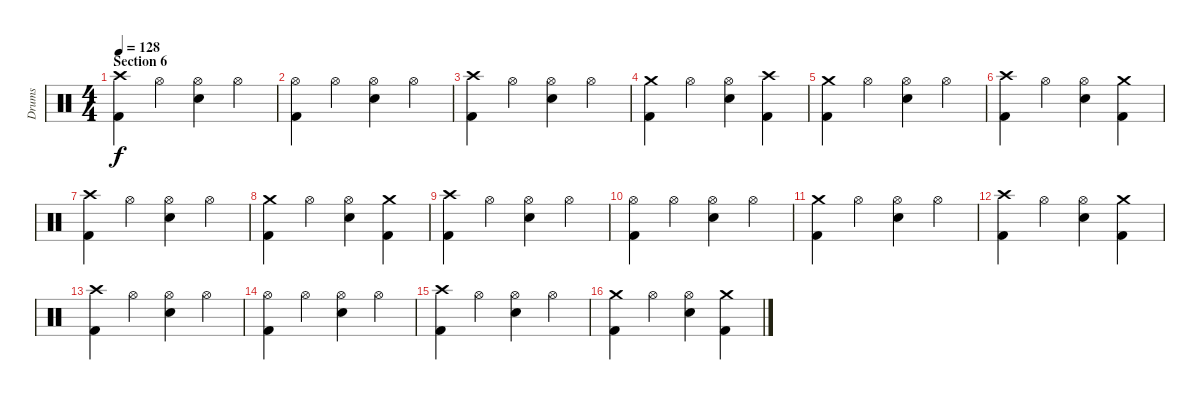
\track ("Drums" "Drums") {instrument percussion}
\staff {score}
\articulation defaults
\ts (4 4)
\section ("" "Section 6")
\tempo 128
\clef neutral
\ks c
("Crash high (hit)" "Kick (hit) 2").4{dy f} "Hi-Hat (open)".4 ("Hi-Hat (open)" "Electric Snare (hit)").4 "Hi-Hat (open)".4 |
("Hi-Hat (open)" "Kick (hit) 2").4 "Hi-Hat (open)".4 ("Hi-Hat (open)" "Electric Snare (hit)").4 "Hi-Hat (open)".4 |
("Crash high (hit)" "Kick (hit) 2").4 "Hi-Hat (open)".4 ("Hi-Hat (open)" "Electric Snare (hit)").4 "Hi-Hat (open)".4 |
("Crash medium (hit)" "Kick (hit) 2").4 "Hi-Hat (open)".4 ("Hi-Hat (open)" "Electric Snare (hit)").4 ("Crash high (hit)" "Kick (hit) 2").4 |
("Crash medium (hit)" "Kick (hit) 2").4 "Hi-Hat (open)".4 ("Hi-Hat (open)" "Electric Snare (hit)").4 "Hi-Hat (open)".4 |
("Crash high (hit)" "Kick (hit) 2").4 "Hi-Hat (open)".4 ("Hi-Hat (open)" "Electric Snare (hit)").4 ("Crash medium (hit)" "Kick (hit) 2").4 |
("Crash high (hit)" "Kick (hit) 2").4 "Hi-Hat (open)".4 ("Hi-Hat (open)" "Electric Snare (hit)").4 "Hi-Hat (open)".4 |
("Crash medium (hit)" "Kick (hit) 2").4 "Hi-Hat (open)".4 ("Hi-Hat (open)" "Electric Snare (hit)").4 ("Crash medium (hit)" "Kick (hit) 2").4 |
("Crash high (hit)" "Kick (hit) 2").4 "Hi-Hat (open)".4 ("Hi-Hat (open)" "Electric Snare (hit)").4 "Hi-Hat (open)".4 |
("Hi-Hat (open)" "Kick (hit) 2").4 "Hi-Hat (open)".4 ("Hi-Hat (open)" "Electric Snare (hit)").4 "Hi-Hat (open)".4 |
("Crash medium (hit)" "Kick (hit) 2").4 "Hi-Hat (open)".4 ("Hi-Hat (open)" "Electric Snare (hit)").4 "Hi-Hat (open)".4 |
("Crash high (hit)" "Kick (hit) 2").4 "Hi-Hat (open)".4 ("Hi-Hat (open)" "Electric Snare (hit)").4 ("Crash medium (hit)" "Kick (hit) 2").4 |
("Crash high (hit)" "Kick (hit) 2").4 "Hi-Hat (open)".4 ("Hi-Hat (open)" "Electric Snare (hit)").4 "Hi-Hat (open)".4 |
("Hi-Hat (open)" "Kick (hit) 2").4 "Hi-Hat (open)".4 ("Hi-Hat (open)" "Electric Snare (hit)").4 "Hi-Hat (open)".4 |
("Crash high (hit)" "Kick (hit) 2").4 "Hi-Hat (open)".4 ("Hi-Hat (open)" "Electric Snare (hit)").4 "Hi-Hat (open)".4 |
("Crash medium (hit)" "Kick (hit) 2").4 "Hi-Hat (open)".4 ("Hi-Hat (open)" "Electric Snare (hit)").4 ("Crash medium (hit)" "Kick (hit) 2").4
